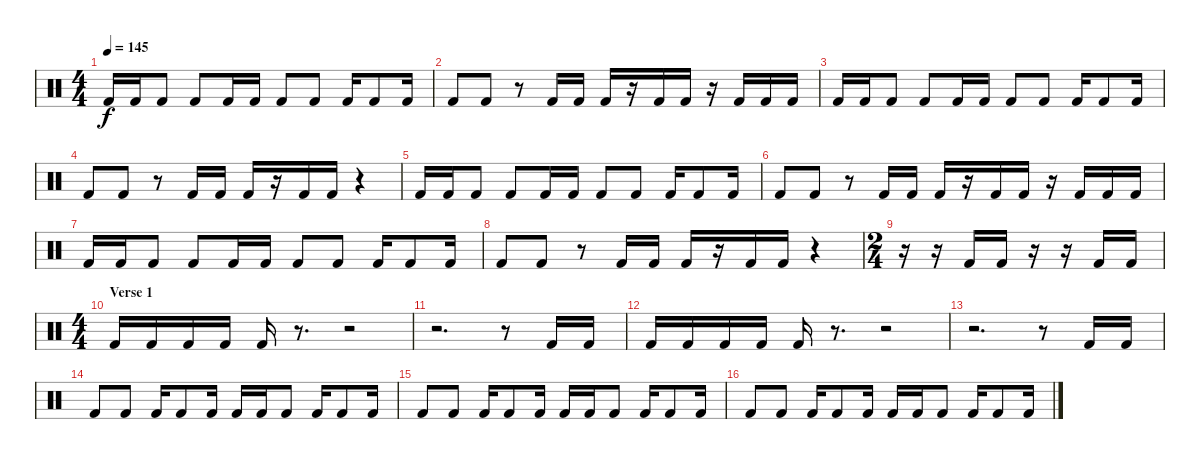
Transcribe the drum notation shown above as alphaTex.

\track "" {instrument percussion}
\staff {score}
\articulation defaults
\ts (4 4)
\tempo 145
\clef neutral
\ks c "Kick (hit) 2".16{dy f} "Kick (hit) 2".16 "Kick (hit) 2".8 "Kick (hit) 2".8 "Kick (hit) 2".16 "Kick (hit) 2".16 "Kick (hit) 2".8 "Kick (hit) 2".8 "Kick (hit) 2".16 "Kick (hit) 2".8 "Kick (hit) 2".16
|
"Kick (hit) 2".8 "Kick (hit) 2".8 r.8 "Kick (hit) 2".16 "Kick (hit) 2".16 "Kick (hit) 2".16 r.16 "Kick (hit) 2".16 "Kick (hit) 2".16 r.16 "Kick (hit) 2".16 "Kick (hit) 2".16 "Kick (hit) 2".16 |
"Kick (hit) 2".16 "Kick (hit) 2".16 "Kick (hit) 2".8 "Kick (hit) 2".8 "Kick (hit) 2".16 "Kick (hit) 2".16 "Kick (hit) 2".8 "Kick (hit) 2".8 "Kick (hit) 2".16 "Kick (hit) 2".8 "Kick (hit) 2".16 |
"Kick (hit) 2".8 "Kick (hit) 2".8 r.8 "Kick (hit) 2".16 "Kick (hit) 2".16 "Kick (hit) 2".16 r.16 "Kick (hit) 2".16 "Kick (hit) 2".16 r.4 |
"Kick (hit) 2".16 "Kick (hit) 2".16 "Kick (hit) 2".8 "Kick (hit) 2".8 "Kick (hit) 2".16 "Kick (hit) 2".16 "Kick (hit) 2".8 "Kick (hit) 2".8 "Kick (hit) 2".16 "Kick (hit) 2".8 "Kick (hit) 2".16 |
"Kick (hit) 2".8 "Kick (hit) 2".8 r.8 "Kick (hit) 2".16 "Kick (hit) 2".16 "Kick (hit) 2".16 r.16 "Kick (hit) 2".16 "Kick (hit) 2".16 r.16 "Kick (hit) 2".16 "Kick (hit) 2".16 "Kick (hit) 2".16 |
"Kick (hit) 2".16 "Kick (hit) 2".16 "Kick (hit) 2".8 "Kick (hit) 2".8 "Kick (hit) 2".16 "Kick (hit) 2".16 "Kick (hit) 2".8 "Kick (hit) 2".8 "Kick (hit) 2".16 "Kick (hit) 2".8 "Kick (hit) 2".16 |
"Kick (hit) 2".8 "Kick (hit) 2".8 r.8 "Kick (hit) 2".16 "Kick (hit) 2".16 "Kick (hit) 2".16 r.16 "Kick (hit) 2".16 "Kick (hit) 2".16 r.4 |
\ts (2 4)
r.16 r.16 "Kick (hit) 2".16 "Kick (hit) 2".16 r.16 r.16 "Kick (hit) 2".16 "Kick (hit) 2".16 |
\ts (4 4)
\section ("" "Verse 1")
"Kick (hit) 2".16 "Kick (hit) 2".16 "Kick (hit) 2".16 "Kick (hit) 2".16 "Kick (hit) 2".16 r.8{d} r.2 |
r.2{d} r.8 "Kick (hit) 2".16 "Kick (hit) 2".16 |
"Kick (hit) 2".16 "Kick (hit) 2".16 "Kick (hit) 2".16 "Kick (hit) 2".16 "Kick (hit) 2".16 r.8{d} r.2 |
r.2{d} r.8 "Kick (hit) 2".16 "Kick (hit) 2".16 |
"Kick (hit) 2".8 "Kick (hit) 2".8 "Kick (hit) 2".16 "Kick (hit) 2".8 "Kick (hit) 2".16 "Kick (hit) 2".16 "Kick (hit) 2".16 "Kick (hit) 2".8 "Kick (hit) 2".16 "Kick (hit) 2".8 "Kick (hit) 2".16 |
"Kick (hit) 2".8 "Kick (hit) 2".8 "Kick (hit) 2".16 "Kick (hit) 2".8 "Kick (hit) 2".16 "Kick (hit) 2".16 "Kick (hit) 2".16 "Kick (hit) 2".8 "Kick (hit) 2".16 "Kick (hit) 2".8 "Kick (hit) 2".16 |
"Kick (hit) 2".8 "Kick (hit) 2".8 "Kick (hit) 2".16 "Kick (hit) 2".8 "Kick (hit) 2".16 "Kick (hit) 2".16 "Kick (hit) 2".16 "Kick (hit) 2".8 "Kick (hit) 2".16 "Kick (hit) 2".8 "Kick (hit) 2".16
